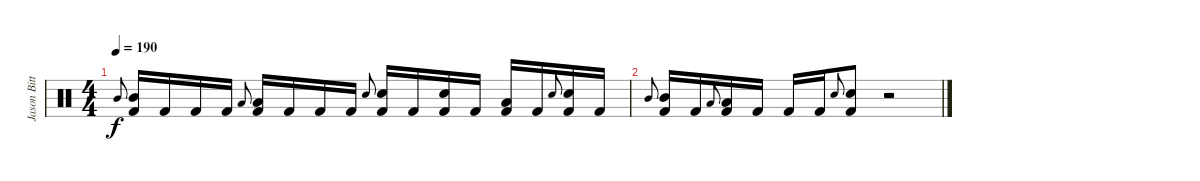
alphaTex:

\track ("Jason Bittner" "Jason Bitt") {instrument percussion}
\staff {score}
\articulation defaults
\ts (4 4)
\tempo 190
\clef neutral
\ks c "Mid Tom (hit)".8{gr onbeat dy f}
("Mid Tom (hit)" "Kick (hit) 2").16 "Kick (hit) 2".16 "Kick (hit) 2".16 "Kick (hit) 2".16 "Low Tom (hit)".8{gr onbeat} ("Low Tom (hit)" "Kick (hit) 2").16 "Kick (hit) 2".16 "Kick (hit) 2".16 "Kick (hit) 2".16 "Electric Snare (hit)".8{gr onbeat} ("Electric Snare (hit)" "Kick (hit) 2").16 "Kick (hit) 2".16 ("Electric Snare (hit)" "Kick (hit) 2").16 "Kick (hit) 2".16 ("Low Tom (hit)" "Kick (hit) 2").16 "Kick (hit) 2".16 "Electric Snare (hit)".8{gr onbeat} ("Electric Snare (hit)" "Kick (hit) 2").16 "Kick (hit) 2".16 |
"Mid Tom (hit)".8{gr onbeat} ("Mid Tom (hit)" "Kick (hit) 2").16 "Kick (hit) 2".16 "Low Tom (hit)".8{gr onbeat} ("Low Tom (hit)" "Kick (hit) 2").16 "Kick (hit) 2".16 "Kick (hit) 2".16 "Kick (hit) 2".16 "Electric Snare (hit)".8{gr onbeat} ("Electric Snare (hit)" "Kick (hit) 2").8 r.2
